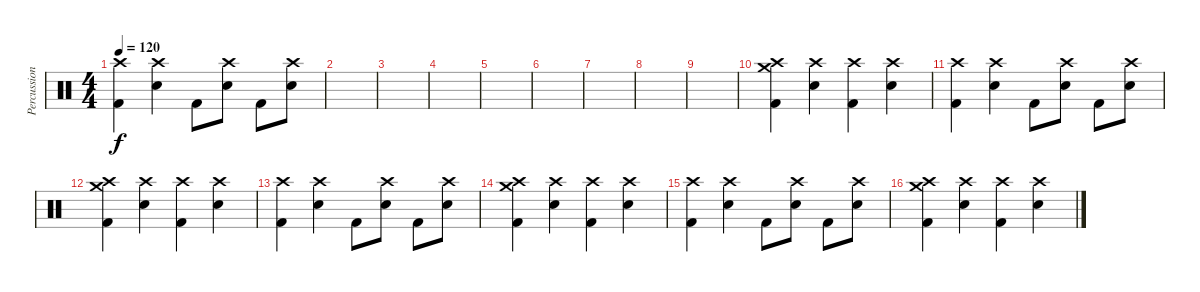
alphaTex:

\track ("Percussion" "Percussion") {instrument percussion}
\staff {score}
\articulation defaults
\ts (4 4)
\tempo 120
\clef neutral
\ks c
("Kick (hit) 2" "Crash high (hit)").4{dy f} ("Snare (hit) 2" "Crash high (hit)").4 "Kick (hit) 2".8 ("Snare (hit) 2" "Crash high (hit)").8 "Kick (hit) 2".8 ("Snare (hit) 2" "Crash high (hit)").8 |
|
|
|
|
|
|
|
|
("Kick (hit) 2" "Crash high (hit)" "Crash medium (hit)").4 ("Snare (hit) 2" "Crash high (hit)").4 ("Kick (hit) 2" "Crash high (hit)").4 ("Snare (hit) 2" "Crash high (hit)").4 |
("Kick (hit) 2" "Crash high (hit)").4 ("Snare (hit) 2" "Crash high (hit)").4 "Kick (hit) 2".8 ("Snare (hit) 2" "Crash high (hit)").8 "Kick (hit) 2".8 ("Snare (hit) 2" "Crash high (hit)").8 |
("Kick (hit) 2" "Crash high (hit)" "Crash medium (hit)").4 ("Snare (hit) 2" "Crash high (hit)").4 ("Kick (hit) 2" "Crash high (hit)").4 ("Snare (hit) 2" "Crash high (hit)").4 |
("Kick (hit) 2" "Crash high (hit)").4 ("Snare (hit) 2" "Crash high (hit)").4 "Kick (hit) 2".8 ("Snare (hit) 2" "Crash high (hit)").8 "Kick (hit) 2".8 ("Snare (hit) 2" "Crash high (hit)").8 |
("Kick (hit) 2" "Crash high (hit)" "Crash medium (hit)").4 ("Snare (hit) 2" "Crash high (hit)").4 ("Kick (hit) 2" "Crash high (hit)").4 ("Snare (hit) 2" "Crash high (hit)").4 |
("Kick (hit) 2" "Crash high (hit)").4 ("Snare (hit) 2" "Crash high (hit)").4 "Kick (hit) 2".8 ("Snare (hit) 2" "Crash high (hit)").8 "Kick (hit) 2".8 ("Snare (hit) 2" "Crash high (hit)").8 |
("Kick (hit) 2" "Crash high (hit)" "Crash medium (hit)").4 ("Snare (hit) 2" "Crash high (hit)").4 ("Kick (hit) 2" "Crash high (hit)").4 ("Snare (hit) 2" "Crash high (hit)").4
